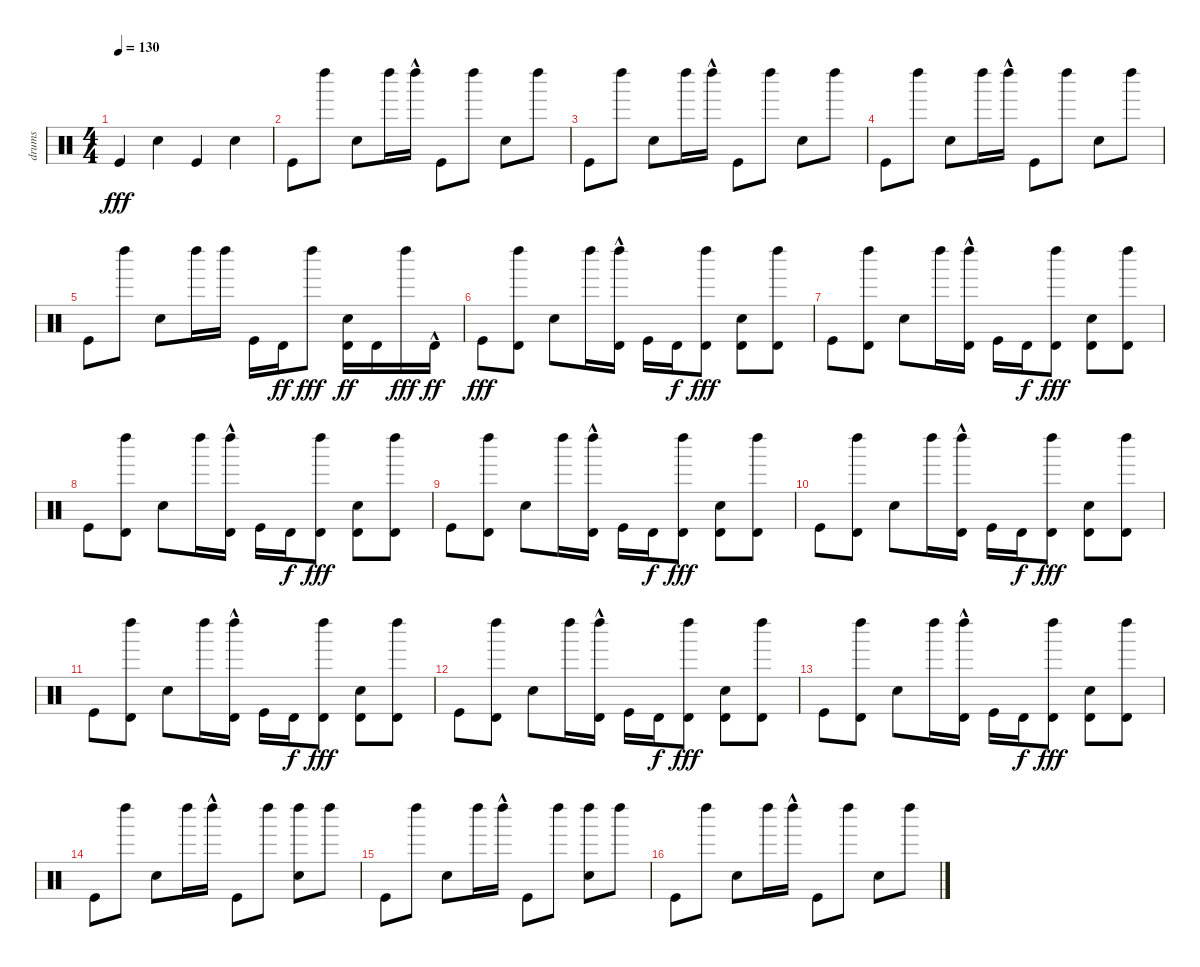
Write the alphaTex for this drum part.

\track ("drums" "drums") {instrument percussion}
\staff {score}
\articulation defaults
\ts (4 4)
\tempo 130
\clef neutral
\ks c "Kick (hit)".4{dy fff} "Snare (hit) 2".4 "Kick (hit)".4 "Snare (hit) 2".4
|
"Kick (hit)".8 "Left Maraca (hit)".8 "Snare (hit) 2".8 "Left Maraca (hit)".16 "Left Maraca (hit)"{hac}.16 "Kick (hit)".8 "Left Maraca (hit)".8 "Snare (hit) 2".8 "Left Maraca (hit)".8 |
"Kick (hit)".8 "Left Maraca (hit)".8 "Snare (hit) 2".8 "Left Maraca (hit)".16 "Left Maraca (hit)"{hac}.16 "Kick (hit)".8 "Left Maraca (hit)".8 "Snare (hit) 2".8 "Left Maraca (hit)".8 |
"Kick (hit)".8 "Left Maraca (hit)".8 "Snare (hit) 2".8 "Left Maraca (hit)".16 "Left Maraca (hit)"{hac}.16 "Kick (hit)".8 "Left Maraca (hit)".8 "Snare (hit) 2".8 "Left Maraca (hit)".8 |
"Kick (hit)".8 "Left Maraca (hit)".8 "Snare (hit) 2".8 "Left Maraca (hit)".16 "Left Maraca (hit)".16 "Kick (hit)".16 "Timbale high (hit)".16{dy ff} "Left Maraca (hit)".8{dy fff} ("Snare (hit) 2" "Timbale high (hit)").16{dy ff} "Timbale high (hit)".16 "Left Maraca (hit)".16{dy fff} "Timbale high (hit)"{hac}.16{dy ff} |
"Kick (hit)".8{dy fff} ("Left Maraca (hit)" "Timbale high (hit)").8 "Snare (hit) 2".8 "Left Maraca (hit)".16 ("Left Maraca (hit)"{hac} "Timbale high (hit)").16 "Kick (hit)".16 "Timbale high (hit)".16{dy f} ("Left Maraca (hit)" "Timbale high (hit)").8{dy fff} ("Snare (hit) 2" "Timbale high (hit)").8 ("Left Maraca (hit)" "Timbale high (hit)").8 |
"Kick (hit)".8 ("Left Maraca (hit)" "Timbale high (hit)").8 "Snare (hit) 2".8 "Left Maraca (hit)".16 ("Left Maraca (hit)"{hac} "Timbale high (hit)").16 "Kick (hit)".16 "Timbale high (hit)".16{dy f} ("Left Maraca (hit)" "Timbale high (hit)").8{dy fff} ("Snare (hit) 2" "Timbale high (hit)").8 ("Left Maraca (hit)" "Timbale high (hit)").8 |
"Kick (hit)".8 ("Left Maraca (hit)" "Timbale high (hit)").8 "Snare (hit) 2".8 "Left Maraca (hit)".16 ("Left Maraca (hit)"{hac} "Timbale high (hit)").16 "Kick (hit)".16 "Timbale high (hit)".16{dy f} ("Left Maraca (hit)" "Timbale high (hit)").8{dy fff} ("Snare (hit) 2" "Timbale high (hit)").8 ("Left Maraca (hit)" "Timbale high (hit)").8 |
"Kick (hit)".8 ("Left Maraca (hit)" "Timbale high (hit)").8 "Snare (hit) 2".8 "Left Maraca (hit)".16 ("Left Maraca (hit)"{hac} "Timbale high (hit)").16 "Kick (hit)".16 "Timbale high (hit)".16{dy f} ("Left Maraca (hit)" "Timbale high (hit)").8{dy fff} ("Snare (hit) 2" "Timbale high (hit)").8 ("Left Maraca (hit)" "Timbale high (hit)").8 |
"Kick (hit)".8 ("Left Maraca (hit)" "Timbale high (hit)").8 "Snare (hit) 2".8 "Left Maraca (hit)".16 ("Left Maraca (hit)"{hac} "Timbale high (hit)").16 "Kick (hit)".16 "Timbale high (hit)".16{dy f} ("Left Maraca (hit)" "Timbale high (hit)").8{dy fff} ("Snare (hit) 2" "Timbale high (hit)").8 ("Left Maraca (hit)" "Timbale high (hit)").8 |
"Kick (hit)".8 ("Left Maraca (hit)" "Timbale high (hit)").8 "Snare (hit) 2".8 "Left Maraca (hit)".16 ("Left Maraca (hit)"{hac} "Timbale high (hit)").16 "Kick (hit)".16 "Timbale high (hit)".16{dy f} ("Left Maraca (hit)" "Timbale high (hit)").8{dy fff} ("Snare (hit) 2" "Timbale high (hit)").8 ("Left Maraca (hit)" "Timbale high (hit)").8 |
"Kick (hit)".8 ("Left Maraca (hit)" "Timbale high (hit)").8 "Snare (hit) 2".8 "Left Maraca (hit)".16 ("Left Maraca (hit)"{hac} "Timbale high (hit)").16 "Kick (hit)".16 "Timbale high (hit)".16{dy f} ("Left Maraca (hit)" "Timbale high (hit)").8{dy fff} ("Snare (hit) 2" "Timbale high (hit)").8 ("Left Maraca (hit)" "Timbale high (hit)").8 |
"Kick (hit)".8 ("Left Maraca (hit)" "Timbale high (hit)").8 "Snare (hit) 2".8 "Left Maraca (hit)".16 ("Left Maraca (hit)"{hac} "Timbale high (hit)").16 "Kick (hit)".16 "Timbale high (hit)".16{dy f} ("Left Maraca (hit)" "Timbale high (hit)").8{dy fff} ("Snare (hit) 2" "Timbale high (hit)").8 ("Left Maraca (hit)" "Timbale high (hit)").8 |
"Kick (hit)".8 "Left Maraca (hit)".8 "Snare (hit) 2".8 "Left Maraca (hit)".16 "Left Maraca (hit)"{hac}.16 "Kick (hit)".8 "Left Maraca (hit)".8 ("Snare (hit) 2" "Left Maraca (hit)").8 "Left Maraca (hit)".8 |
"Kick (hit)".8 "Left Maraca (hit)".8 "Snare (hit) 2".8 "Left Maraca (hit)".16 "Left Maraca (hit)"{hac}.16 "Kick (hit)".8 "Left Maraca (hit)".8 ("Snare (hit) 2" "Left Maraca (hit)").8 "Left Maraca (hit)".8 |
"Kick (hit)".8 "Left Maraca (hit)".8 "Snare (hit) 2".8 "Left Maraca (hit)".16 "Left Maraca (hit)"{hac}.16 "Kick (hit)".8 "Left Maraca (hit)".8 "Snare (hit) 2".8 "Left Maraca (hit)".8
